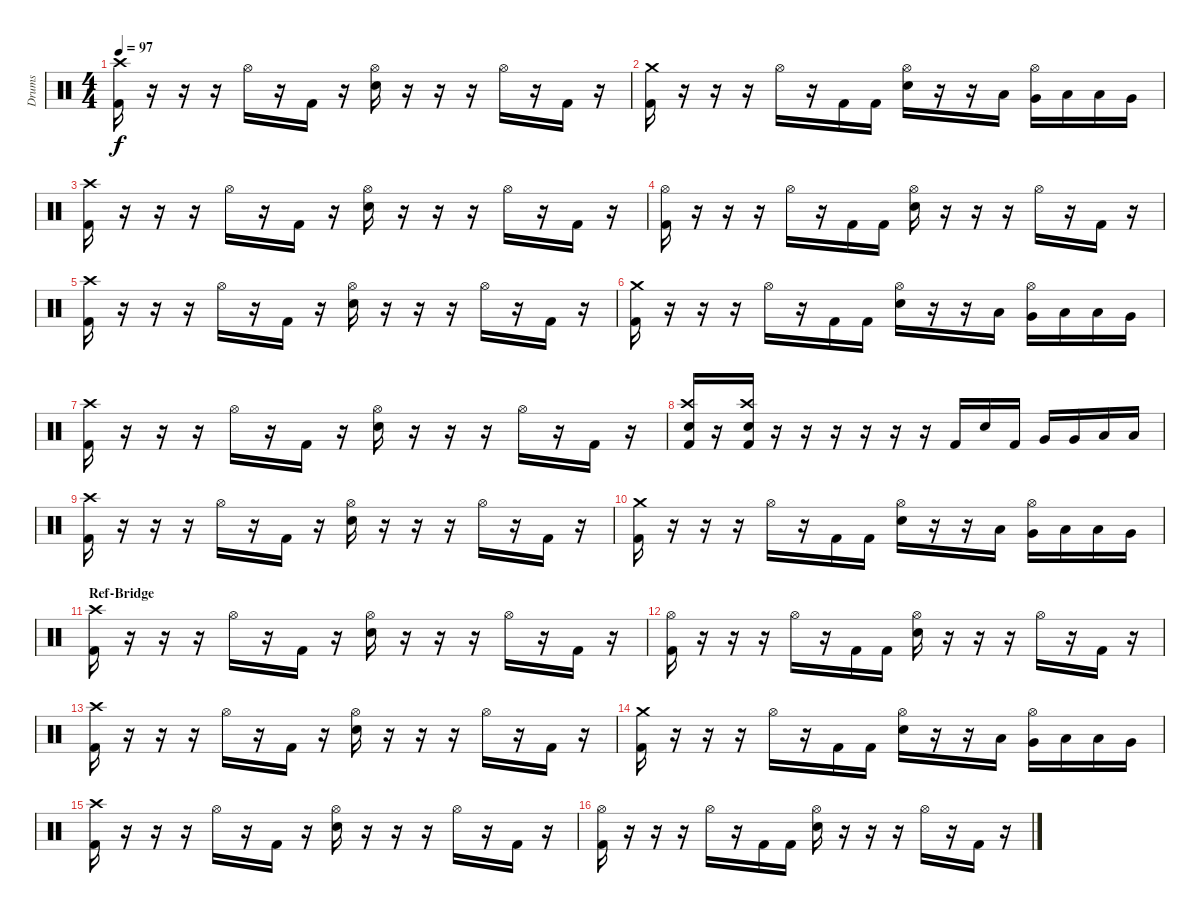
\track ("Drums" "Drums") {instrument percussion}
\staff {score}
\articulation defaults
\ts (4 4)
\tempo 97
\clef neutral
\ks c
("Kick (hit) 2" "Crash high (hit)").16{dy f} r.16 r.16 r.16 "Hi-Hat (open)".16 r.16 "Kick (hit) 2".16 r.16 ("Electric Snare (hit)" "Hi-Hat (open)").16 r.16 r.16 r.16 "Hi-Hat (open)".16 r.16 "Kick (hit) 2".16 r.16 |
("Kick (hit) 2" "Crash medium (hit)").16 r.16 r.16 r.16 "Hi-Hat (open)".16 r.16 "Kick (hit) 2".16 "Kick (hit) 2".16 ("Electric Snare (hit)" "Hi-Hat (open)").16 r.16 r.16 "Low Tom (hit)".16 ("Very Low Tom (hit)" "Hi-Hat (open)").16 "Low Floor Tom (hit)".16 "Low Floor Tom (hit)".16 "Very Low Tom (hit)".16 |
("Kick (hit) 2" "Crash high (hit)").16 r.16 r.16 r.16 "Hi-Hat (open)".16 r.16 "Kick (hit) 2".16 r.16 ("Electric Snare (hit)" "Hi-Hat (open)").16 r.16 r.16 r.16 "Hi-Hat (open)".16 r.16 "Kick (hit) 2".16 r.16 |
("Kick (hit) 2" "Hi-Hat (open)").16 r.16 r.16 r.16 "Hi-Hat (open)".16 r.16 "Kick (hit) 2".16 "Kick (hit) 2".16 ("Electric Snare (hit)" "Hi-Hat (open)").16 r.16 r.16 r.16 "Hi-Hat (open)".16 r.16 "Kick (hit) 2".16 r.16 |
("Kick (hit) 2" "Crash high (hit)").16 r.16 r.16 r.16 "Hi-Hat (open)".16 r.16 "Kick (hit) 2".16 r.16 ("Electric Snare (hit)" "Hi-Hat (open)").16 r.16 r.16 r.16 "Hi-Hat (open)".16 r.16 "Kick (hit) 2".16 r.16 |
("Kick (hit) 2" "Crash medium (hit)").16 r.16 r.16 r.16 "Hi-Hat (open)".16 r.16 "Kick (hit) 2".16 "Kick (hit) 2".16 ("Electric Snare (hit)" "Hi-Hat (open)").16 r.16 r.16 "Low Tom (hit)".16 ("Very Low Tom (hit)" "Hi-Hat (open)").16 "Low Floor Tom (hit)".16 "Low Floor Tom (hit)".16 "Very Low Tom (hit)".16 |
("Kick (hit) 2" "Crash high (hit)").16 r.16 r.16 r.16 "Hi-Hat (open)".16 r.16 "Kick (hit) 2".16 r.16 ("Electric Snare (hit)" "Hi-Hat (open)").16 r.16 r.16 r.16 "Hi-Hat (open)".16 r.16 "Kick (hit) 2".16 r.16 |
("Kick (hit) 2" "Electric Snare (hit)" "Crash high (hit)").16 r.16 ("Kick (hit) 2" "Electric Snare (hit)" "Crash high (hit)").16 r.16 r.16 r.16 r.16 r.16 r.16 "Kick (hit) 2".16 "Electric Snare (hit)".16 "Kick (hit) 2".16 "Very Low Tom (hit)".16 "Very Low Tom (hit)".16 "Low Floor Tom (hit)".16 "Low Floor Tom (hit)".16 |
("Kick (hit) 2" "Crash high (hit)").16 r.16 r.16 r.16 "Hi-Hat (open)".16 r.16 "Kick (hit) 2".16 r.16 ("Electric Snare (hit)" "Hi-Hat (open)").16 r.16 r.16 r.16 "Hi-Hat (open)".16 r.16 "Kick (hit) 2".16 r.16 |
("Kick (hit) 2" "Crash medium (hit)").16 r.16 r.16 r.16 "Hi-Hat (open)".16 r.16 "Kick (hit) 2".16 "Kick (hit) 2".16 ("Electric Snare (hit)" "Hi-Hat (open)").16 r.16 r.16 "Low Tom (hit)".16 ("Very Low Tom (hit)" "Hi-Hat (open)").16 "Low Floor Tom (hit)".16 "Low Floor Tom (hit)".16 "Very Low Tom (hit)".16 |
\section ("" "Ref-Bridge")
("Kick (hit) 2" "Crash high (hit)").16 r.16 r.16 r.16 "Hi-Hat (open)".16 r.16 "Kick (hit) 2".16 r.16 ("Electric Snare (hit)" "Hi-Hat (open)").16 r.16 r.16 r.16 "Hi-Hat (open)".16 r.16 "Kick (hit) 2".16 r.16 |
("Kick (hit) 2" "Hi-Hat (open)").16 r.16 r.16 r.16 "Hi-Hat (open)".16 r.16 "Kick (hit) 2".16 "Kick (hit) 2".16 ("Electric Snare (hit)" "Hi-Hat (open)").16 r.16 r.16 r.16 "Hi-Hat (open)".16 r.16 "Kick (hit) 2".16 r.16 |
("Kick (hit) 2" "Crash high (hit)").16 r.16 r.16 r.16 "Hi-Hat (open)".16 r.16 "Kick (hit) 2".16 r.16 ("Electric Snare (hit)" "Hi-Hat (open)").16 r.16 r.16 r.16 "Hi-Hat (open)".16 r.16 "Kick (hit) 2".16 r.16 |
("Kick (hit) 2" "Crash medium (hit)").16 r.16 r.16 r.16 "Hi-Hat (open)".16 r.16 "Kick (hit) 2".16 "Kick (hit) 2".16 ("Electric Snare (hit)" "Hi-Hat (open)").16 r.16 r.16 "Low Tom (hit)".16 ("Very Low Tom (hit)" "Hi-Hat (open)").16 "Low Floor Tom (hit)".16 "Low Floor Tom (hit)".16 "Very Low Tom (hit)".16 |
("Kick (hit) 2" "Crash high (hit)").16 r.16 r.16 r.16 "Hi-Hat (open)".16 r.16 "Kick (hit) 2".16 r.16 ("Electric Snare (hit)" "Hi-Hat (open)").16 r.16 r.16 r.16 "Hi-Hat (open)".16 r.16 "Kick (hit) 2".16 r.16 |
("Kick (hit) 2" "Hi-Hat (open)").16 r.16 r.16 r.16 "Hi-Hat (open)".16 r.16 "Kick (hit) 2".16 "Kick (hit) 2".16 ("Electric Snare (hit)" "Hi-Hat (open)").16 r.16 r.16 r.16 "Hi-Hat (open)".16 r.16 "Kick (hit) 2".16 r.16
